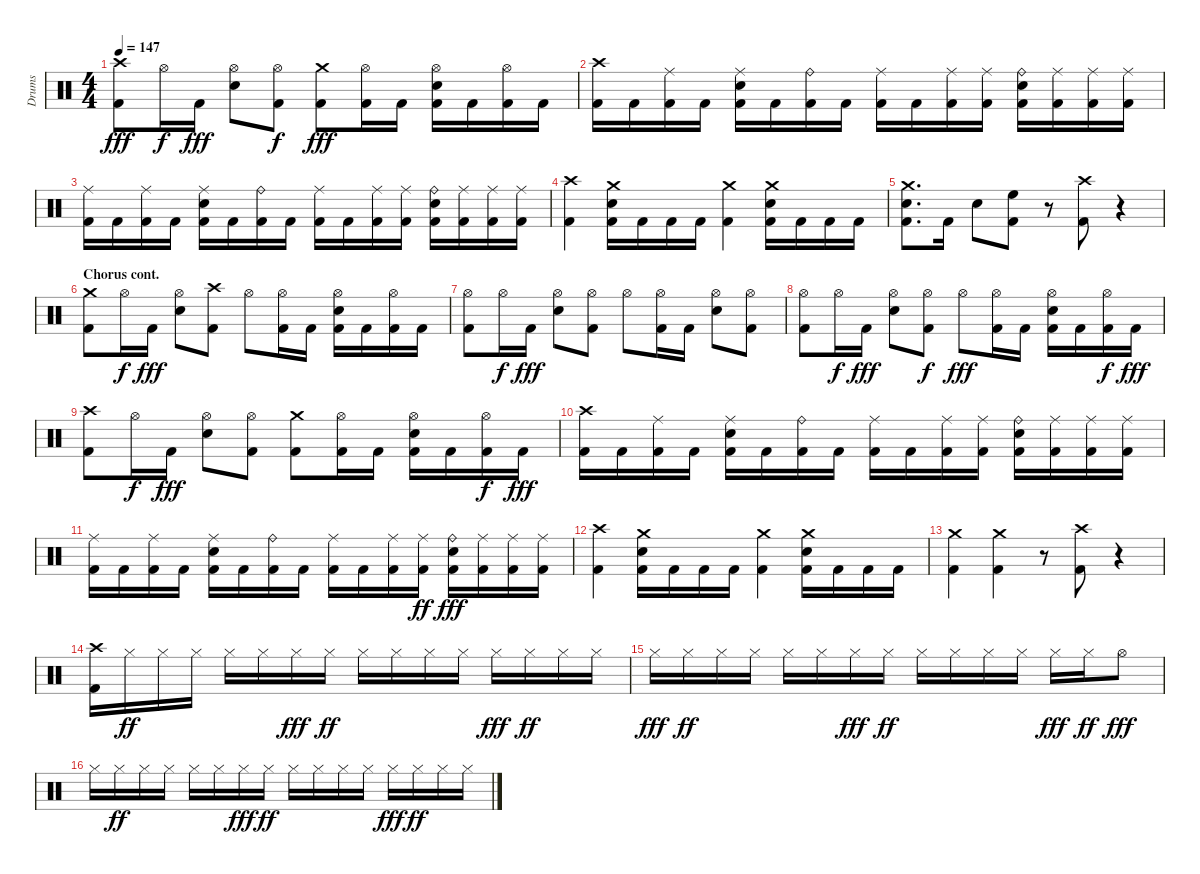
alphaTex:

\track ("Drums" "Drums") {instrument percussion}
\staff {score}
\articulation defaults
\ts (4 4)
\tempo 147
\clef neutral
\ks aminor
("Crash high (hit)" "Kick (hit) 2").8{dy fff} "Hi-Hat (open)".16{dy f} "Kick (hit) 2".16{dy fff} ("Snare (hit) 2" "Hi-Hat (open)").8 ("Kick (hit) 2" "Hi-Hat (open)").8{dy f} ("Kick (hit) 2" "Crash medium (hit)").8{dy fff} ("Kick (hit) 2" "Hi-Hat (open)").16 "Kick (hit) 2".16 ("Kick (hit) 2" "Snare (hit) 2" "Hi-Hat (open)").16 "Kick (hit) 2".16 ("Kick (hit) 2" "Hi-Hat (open)").16 "Kick (hit) 2".16 |
("Kick (hit) 2" "Crash high (hit)").16 "Kick (hit) 2".16 ("Kick (hit) 2" "Ride (middle)").16 "Kick (hit) 2".16 ("Kick (hit) 2" "Snare (hit) 2" "Ride (middle)").16 "Kick (hit) 2".16 ("Ride (bell)" "Kick (hit) 2").16 "Kick (hit) 2".16 ("Kick (hit) 2" "Ride (middle)").16 "Kick (hit) 2".16 ("Kick (hit) 2" "Ride (middle)").16 ("Ride (middle)" "Kick (hit) 2").16 ("Ride (bell)" "Kick (hit) 2" "Snare (hit) 2").16 ("Ride (middle)" "Kick (hit) 2").16 ("Ride (middle)" "Kick (hit) 2").16 ("Kick (hit) 2" "Ride (middle)").16 |
("Ride (middle)" "Kick (hit) 2").16 "Kick (hit) 2".16 ("Ride (middle)" "Kick (hit) 2").16 "Kick (hit) 2".16 ("Kick (hit) 2" "Snare (hit) 2" "Ride (middle)").16 "Kick (hit) 2".16 ("Kick (hit) 2" "Ride (bell)").16 "Kick (hit) 2".16 ("Ride (middle)" "Kick (hit) 2").16 "Kick (hit) 2".16 ("Kick (hit) 2" "Ride (middle)").16 ("Ride (middle)" "Kick (hit) 2").16 ("Ride (bell)" "Kick (hit) 2" "Snare (hit) 2").16 ("Ride (middle)" "Kick (hit) 2").16 ("Kick (hit) 2" "Ride (middle)").16 ("Kick (hit) 2" "Ride (middle)").16 |
("Kick (hit) 2" "Crash high (hit)").4 ("Kick (hit) 2" "Snare (hit) 2" "Crash medium (hit)").16 "Kick (hit) 2".16 "Kick (hit) 2".16 "Kick (hit) 2".16 ("Kick (hit) 2" "Crash medium (hit)").4 ("Kick (hit) 2" "Snare (hit) 2" "Crash medium (hit)").16 "Kick (hit) 2".16 "Kick (hit) 2".16 "Kick (hit) 2".16 |
("Kick (hit) 2" "Snare (hit) 2" "Crash medium (hit)").8{d} "Kick (hit) 2".16 "Snare (hit) 2".8 ("High Floor Tom (hit)" "Kick (hit) 2").8 r.8 ("Crash high (hit)" "Kick (hit) 2").8 r.4 |
\section ("" "Chorus cont.")
("Kick (hit) 2" "Crash medium (hit)").8 "Hi-Hat (open)".16{dy f} "Kick (hit) 2".16{dy fff} ("Snare (hit) 2" "Hi-Hat (open)").8 ("Kick (hit) 2" "Crash high (hit)").8 "Hi-Hat (open)".8 ("Kick (hit) 2" "Hi-Hat (open)").16 "Kick (hit) 2".16 ("Snare (hit) 2" "Hi-Hat (open)" "Kick (hit) 2").16 "Kick (hit) 2".16 ("Kick (hit) 2" "Hi-Hat (open)").16 "Kick (hit) 2".16 |
("Hi-Hat (open)" "Kick (hit) 2").8 "Hi-Hat (open)".16{dy f} "Kick (hit) 2".16{dy fff} ("Snare (hit) 2" "Hi-Hat (open)").8 ("Kick (hit) 2" "Hi-Hat (open)").8 "Hi-Hat (open)".8 ("Kick (hit) 2" "Hi-Hat (open)").16 "Kick (hit) 2".16 ("Snare (hit) 2" "Hi-Hat (open)").8 ("Kick (hit) 2" "Hi-Hat (open)").8 |
("Kick (hit) 2" "Hi-Hat (open)").8 "Hi-Hat (open)".16{dy f} "Kick (hit) 2".16{dy fff} ("Snare (hit) 2" "Hi-Hat (open)").8 ("Kick (hit) 2" "Hi-Hat (open)").8{dy f} "Hi-Hat (open)".8{dy fff} ("Kick (hit) 2" "Hi-Hat (open)").16 "Kick (hit) 2".16 ("Snare (hit) 2" "Hi-Hat (open)" "Kick (hit) 2").16 "Kick (hit) 2".16 ("Hi-Hat (open)" "Kick (hit) 2").16{dy f} "Kick (hit) 2".16{dy fff} |
("Kick (hit) 2" "Crash high (hit)").8 "Hi-Hat (open)".16{dy f} "Kick (hit) 2".16{dy fff} ("Snare (hit) 2" "Hi-Hat (open)").8 ("Kick (hit) 2" "Hi-Hat (open)").8 ("Kick (hit) 2" "Crash medium (hit)").8 ("Kick (hit) 2" "Hi-Hat (open)").16 "Kick (hit) 2".16 ("Snare (hit) 2" "Kick (hit) 2" "Hi-Hat (open)").16 "Kick (hit) 2".16 ("Hi-Hat (open)" "Kick (hit) 2").16{dy f} "Kick (hit) 2".16{dy fff} |
("Kick (hit) 2" "Crash high (hit)").16 "Kick (hit) 2".16 ("Kick (hit) 2" "Ride (middle)").16 "Kick (hit) 2".16 ("Kick (hit) 2" "Snare (hit) 2" "Ride (middle)").16 "Kick (hit) 2".16 ("Kick (hit) 2" "Ride (bell)").16 "Kick (hit) 2".16 ("Kick (hit) 2" "Ride (middle)").16 "Kick (hit) 2".16 ("Ride (middle)" "Kick (hit) 2").16 ("Kick (hit) 2" "Ride (middle)").16 ("Kick (hit) 2" "Ride (bell)" "Snare (hit) 2").16 ("Kick (hit) 2" "Ride (middle)").16 ("Kick (hit) 2" "Ride (middle)").16 ("Kick (hit) 2" "Ride (middle)").16 |
("Kick (hit) 2" "Ride (middle)").16 "Kick (hit) 2".16 ("Kick (hit) 2" "Ride (middle)").16 "Kick (hit) 2".16 ("Kick (hit) 2" "Snare (hit) 2" "Ride (middle)").16 "Kick (hit) 2".16 ("Ride (bell)" "Kick (hit) 2").16 "Kick (hit) 2".16 ("Kick (hit) 2" "Ride (middle)").16 "Kick (hit) 2".16 ("Kick (hit) 2" "Ride (middle)").16 ("Kick (hit) 2" "Ride (middle)").16{dy ff} ("Kick (hit) 2" "Snare (hit) 2" "Ride (bell)").16{dy fff} ("Kick (hit) 2" "Ride (middle)").16 ("Ride (middle)" "Kick (hit) 2").16 ("Kick (hit) 2" "Ride (middle)").16 |
("Crash high (hit)" "Kick (hit) 2").4 ("Snare (hit) 2" "Kick (hit) 2" "Crash medium (hit)").16 "Kick (hit) 2".16 "Kick (hit) 2".16 "Kick (hit) 2".16 ("Kick (hit) 2" "Crash medium (hit)").4 ("Crash medium (hit)" "Kick (hit) 2" "Snare (hit) 2").16 "Kick (hit) 2".16 "Kick (hit) 2".16 "Kick (hit) 2".16 |
("Kick (hit) 2" "Crash medium (hit)").4 ("Crash medium (hit)" "Kick (hit) 2").4 r.8 ("Crash high (hit)" "Kick (hit) 2").8 r.4 |
("Kick (hit) 2" "Crash high (hit)").16 "Hi-Hat (closed)".16{dy ff} "Hi-Hat (closed)".16 "Hi-Hat (closed)".16 "Hi-Hat (closed)".16 "Hi-Hat (closed)".16 "Hi-Hat (closed)".16{dy fff} "Hi-Hat (closed)".16{dy ff} "Hi-Hat (closed)".16 "Hi-Hat (closed)".16 "Hi-Hat (closed)".16 "Hi-Hat (closed)".16 "Hi-Hat (closed)".16{dy fff} "Hi-Hat (closed)".16{dy ff} "Hi-Hat (closed)".16 "Hi-Hat (closed)".16 |
"Hi-Hat (closed)".16{dy fff} "Hi-Hat (closed)".16{dy ff} "Hi-Hat (closed)".16 "Hi-Hat (closed)".16 "Hi-Hat (closed)".16 "Hi-Hat (closed)".16 "Hi-Hat (closed)".16{dy fff} "Hi-Hat (closed)".16{dy ff} "Hi-Hat (closed)".16 "Hi-Hat (closed)".16 "Hi-Hat (closed)".16 "Hi-Hat (closed)".16 "Hi-Hat (closed)".16{dy fff} "Hi-Hat (closed)".16{dy ff} "Hi-Hat (open)".8{dy fff} |
"Hi-Hat (closed)".16 "Hi-Hat (closed)".16{dy ff} "Hi-Hat (closed)".16 "Hi-Hat (closed)".16 "Hi-Hat (closed)".16 "Hi-Hat (closed)".16 "Hi-Hat (closed)".16{dy fff} "Hi-Hat (closed)".16{dy ff} "Hi-Hat (closed)".16 "Hi-Hat (closed)".16 "Hi-Hat (closed)".16 "Hi-Hat (closed)".16 "Hi-Hat (closed)".16{dy fff} "Hi-Hat (closed)".16{dy ff} "Hi-Hat (closed)".16 "Hi-Hat (closed)".16
